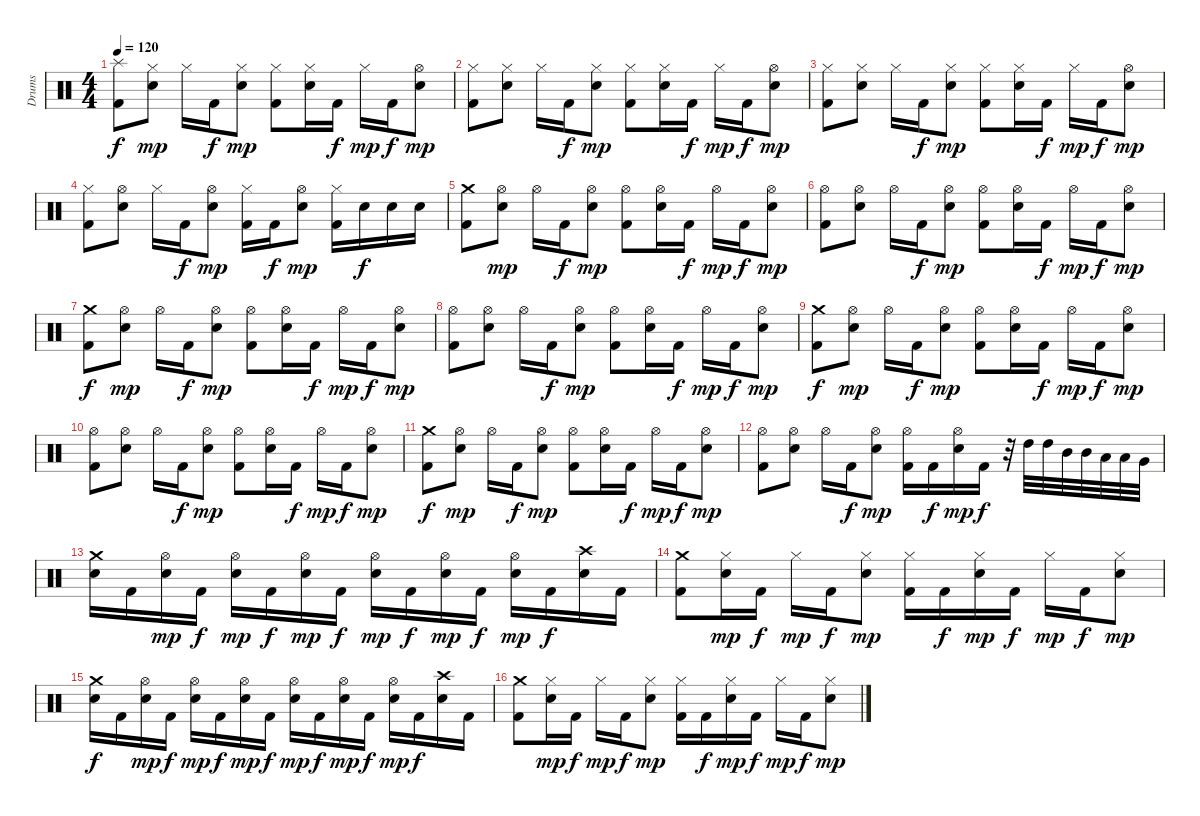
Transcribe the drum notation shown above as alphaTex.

\track ("Drums" "Drums") {instrument percussion}
\staff {score}
\articulation defaults
\ts (4 4)
\tempo 120
\clef neutral
\ks c
("Splash (hit)" "Kick (hit) 2").8{dy f} ("Hi-Hat (closed)" "Snare (hit) 2").8{dy mp} "Hi-Hat (closed)".16 "Kick (hit) 2".16{dy f} ("Hi-Hat (closed)" "Snare (hit) 2").8{dy mp} ("Hi-Hat (closed)" "Kick (hit) 2").8 ("Hi-Hat (closed)" "Snare (hit) 2").16 "Kick (hit) 2".16{dy f} "Hi-Hat (closed)".16{dy mp} "Kick (hit) 2".16{dy f} ("Hi-Hat (open)" "Snare (hit) 2").8{dy mp} |
("Hi-Hat (closed)" "Kick (hit) 2").8 ("Hi-Hat (closed)" "Snare (hit) 2").8 "Hi-Hat (closed)".16 "Kick (hit) 2".16{dy f} ("Hi-Hat (closed)" "Snare (hit) 2").8{dy mp} ("Hi-Hat (closed)" "Kick (hit) 2").8 ("Hi-Hat (closed)" "Snare (hit) 2").16 "Kick (hit) 2".16{dy f} "Hi-Hat (closed)".16{dy mp} "Kick (hit) 2".16{dy f} ("Hi-Hat (open)" "Snare (hit) 2").8{dy mp} |
("Hi-Hat (closed)" "Kick (hit) 2").8 ("Hi-Hat (closed)" "Snare (hit) 2").8 "Hi-Hat (closed)".16 "Kick (hit) 2".16{dy f} ("Hi-Hat (closed)" "Snare (hit) 2").8{dy mp} ("Hi-Hat (closed)" "Kick (hit) 2").8 ("Hi-Hat (closed)" "Snare (hit) 2").16 "Kick (hit) 2".16{dy f} "Hi-Hat (closed)".16{dy mp} "Kick (hit) 2".16{dy f} ("Hi-Hat (open)" "Snare (hit) 2").8{dy mp} |
("Hi-Hat (closed)" "Kick (hit) 2").8 ("Hi-Hat (open)" "Snare (hit) 2").8 "Hi-Hat (closed)".16 "Kick (hit) 2".16{dy f} ("Hi-Hat (open)" "Snare (hit) 2").8{dy mp} ("Hi-Hat (closed)" "Kick (hit) 2").16 "Kick (hit) 2".16{dy f} ("Hi-Hat (open)" "Snare (hit) 2").8{dy mp} ("Hi-Hat (closed)" "Kick (hit) 2").16 "Snare (hit) 2".16{dy f} "Snare (hit) 2".16 "Snare (hit) 2".16 |
("Crash medium (hit)" "Kick (hit) 2").8 ("Hi-Hat (open)" "Snare (hit) 2").8{dy mp} "Hi-Hat (open)".16 "Kick (hit) 2".16{dy f} ("Hi-Hat (open)" "Snare (hit) 2").8{dy mp} ("Hi-Hat (open)" "Kick (hit) 2").8 ("Hi-Hat (open)" "Snare (hit) 2").16 "Kick (hit) 2".16{dy f} "Hi-Hat (open)".16{dy mp} "Kick (hit) 2".16{dy f} ("Hi-Hat (open)" "Snare (hit) 2").8{dy mp} |
("Hi-Hat (open)" "Kick (hit) 2").8 ("Hi-Hat (open)" "Snare (hit) 2").8 "Hi-Hat (open)".16 "Kick (hit) 2".16{dy f} ("Hi-Hat (open)" "Snare (hit) 2").8{dy mp} ("Hi-Hat (open)" "Kick (hit) 2").8 ("Hi-Hat (open)" "Snare (hit) 2").16 "Kick (hit) 2".16{dy f} "Hi-Hat (open)".16{dy mp} "Kick (hit) 2".16{dy f} ("Hi-Hat (open)" "Snare (hit) 2").8{dy mp} |
("Crash medium (hit)" "Kick (hit) 2").8{dy f} ("Hi-Hat (open)" "Snare (hit) 2").8{dy mp} "Hi-Hat (open)".16 "Kick (hit) 2".16{dy f} ("Hi-Hat (open)" "Snare (hit) 2").8{dy mp} ("Hi-Hat (open)" "Kick (hit) 2").8 ("Hi-Hat (open)" "Snare (hit) 2").16 "Kick (hit) 2".16{dy f} "Hi-Hat (open)".16{dy mp} "Kick (hit) 2".16{dy f} ("Hi-Hat (open)" "Snare (hit) 2").8{dy mp} |
("Hi-Hat (open)" "Kick (hit) 2").8 ("Hi-Hat (open)" "Snare (hit) 2").8 "Hi-Hat (open)".16 "Kick (hit) 2".16{dy f} ("Hi-Hat (open)" "Snare (hit) 2").8{dy mp} ("Hi-Hat (open)" "Kick (hit) 2").8 ("Hi-Hat (open)" "Snare (hit) 2").16 "Kick (hit) 2".16{dy f} "Hi-Hat (open)".16{dy mp} "Kick (hit) 2".16{dy f} ("Hi-Hat (open)" "Snare (hit) 2").8{dy mp} |
("Crash medium (hit)" "Kick (hit) 2").8{dy f} ("Hi-Hat (open)" "Snare (hit) 2").8{dy mp} "Hi-Hat (open)".16 "Kick (hit) 2".16{dy f} ("Hi-Hat (open)" "Snare (hit) 2").8{dy mp} ("Hi-Hat (open)" "Kick (hit) 2").8 ("Hi-Hat (open)" "Snare (hit) 2").16 "Kick (hit) 2".16{dy f} "Hi-Hat (open)".16{dy mp} "Kick (hit) 2".16{dy f} ("Hi-Hat (open)" "Snare (hit) 2").8{dy mp} |
("Hi-Hat (open)" "Kick (hit) 2").8 ("Hi-Hat (open)" "Snare (hit) 2").8 "Hi-Hat (open)".16 "Kick (hit) 2".16{dy f} ("Hi-Hat (open)" "Snare (hit) 2").8{dy mp} ("Hi-Hat (open)" "Kick (hit) 2").8 ("Hi-Hat (open)" "Snare (hit) 2").16 "Kick (hit) 2".16{dy f} "Hi-Hat (open)".16{dy mp} "Kick (hit) 2".16{dy f} ("Hi-Hat (open)" "Snare (hit) 2").8{dy mp} |
("Crash medium (hit)" "Kick (hit) 2").8{dy f} ("Hi-Hat (open)" "Snare (hit) 2").8{dy mp} "Hi-Hat (open)".16 "Kick (hit) 2".16{dy f} ("Hi-Hat (open)" "Snare (hit) 2").8{dy mp} ("Hi-Hat (open)" "Kick (hit) 2").8 ("Hi-Hat (open)" "Snare (hit) 2").16 "Kick (hit) 2".16{dy f} "Hi-Hat (open)".16{dy mp} "Kick (hit) 2".16{dy f} ("Hi-Hat (open)" "Snare (hit) 2").8{dy mp} |
("Hi-Hat (open)" "Kick (hit) 2").8 ("Hi-Hat (open)" "Snare (hit) 2").8 "Hi-Hat (open)".16 "Kick (hit) 2".16{dy f} ("Hi-Hat (open)" "Snare (hit) 2").8{dy mp} ("Hi-Hat (open)" "Kick (hit) 2").16 "Kick (hit) 2".16{dy f} ("Hi-Hat (open)" "Snare (hit) 2").16{dy mp} "Kick (hit) 2".16{dy f} r.32 "High Tom (hit)".32 "High Tom (hit)".32 "Mid Tom (hit)".32 "Mid Tom (hit)".32 "Low Tom (hit)".32 "Low Tom (hit)".32 "Very Low Tom (hit)".32 |
("Crash medium (hit)" "Snare (hit) 2").16 "Kick (hit) 2".16 ("Hi-Hat (open)" "Snare (hit) 2").16{dy mp} "Kick (hit) 2".16{dy f} ("Hi-Hat (open)" "Snare (hit) 2").16{dy mp} "Kick (hit) 2".16{dy f} ("Hi-Hat (open)" "Snare (hit) 2").16{dy mp} "Kick (hit) 2".16{dy f} ("Hi-Hat (open)" "Snare (hit) 2").16{dy mp} "Kick (hit) 2".16{dy f} ("Hi-Hat (open)" "Snare (hit) 2").16{dy mp} "Kick (hit) 2".16{dy f} ("Hi-Hat (open)" "Snare (hit) 2").16{dy mp} "Kick (hit) 2".16{dy f} ("Crash high (hit)" "Snare (hit) 2").16 "Kick (hit) 2".16 |
("Crash medium (hit)" "Kick (hit) 2").8 ("Hi-Hat (closed)" "Snare (hit) 2").16{dy mp} "Kick (hit) 2".16{dy f} "Hi-Hat (closed)".16{dy mp} "Kick (hit) 2".16{dy f} ("Hi-Hat (closed)" "Snare (hit) 2").8{dy mp} ("Hi-Hat (closed)" "Kick (hit) 2").16 "Kick (hit) 2".16{dy f} ("Hi-Hat (closed)" "Snare (hit) 2").16{dy mp} "Kick (hit) 2".16{dy f} "Hi-Hat (closed)".16{dy mp} "Kick (hit) 2".16{dy f} ("Hi-Hat (closed)" "Snare (hit) 2").8{dy mp} |
("Crash medium (hit)" "Snare (hit) 2").16{dy f} "Kick (hit) 2".16 ("Hi-Hat (open)" "Snare (hit) 2").16{dy mp} "Kick (hit) 2".16{dy f} ("Hi-Hat (open)" "Snare (hit) 2").16{dy mp} "Kick (hit) 2".16{dy f} ("Hi-Hat (open)" "Snare (hit) 2").16{dy mp} "Kick (hit) 2".16{dy f} ("Hi-Hat (open)" "Snare (hit) 2").16{dy mp} "Kick (hit) 2".16{dy f} ("Hi-Hat (open)" "Snare (hit) 2").16{dy mp} "Kick (hit) 2".16{dy f} ("Hi-Hat (open)" "Snare (hit) 2").16{dy mp} "Kick (hit) 2".16{dy f} ("Crash high (hit)" "Snare (hit) 2").16 "Kick (hit) 2".16 |
("Crash medium (hit)" "Kick (hit) 2").8 ("Hi-Hat (closed)" "Snare (hit) 2").16{dy mp} "Kick (hit) 2".16{dy f} "Hi-Hat (closed)".16{dy mp} "Kick (hit) 2".16{dy f} ("Hi-Hat (closed)" "Snare (hit) 2").8{dy mp} ("Hi-Hat (closed)" "Kick (hit) 2").16 "Kick (hit) 2".16{dy f} ("Hi-Hat (closed)" "Snare (hit) 2").16{dy mp} "Kick (hit) 2".16{dy f} "Hi-Hat (closed)".16{dy mp} "Kick (hit) 2".16{dy f} ("Hi-Hat (closed)" "Snare (hit) 2").8{dy mp}
